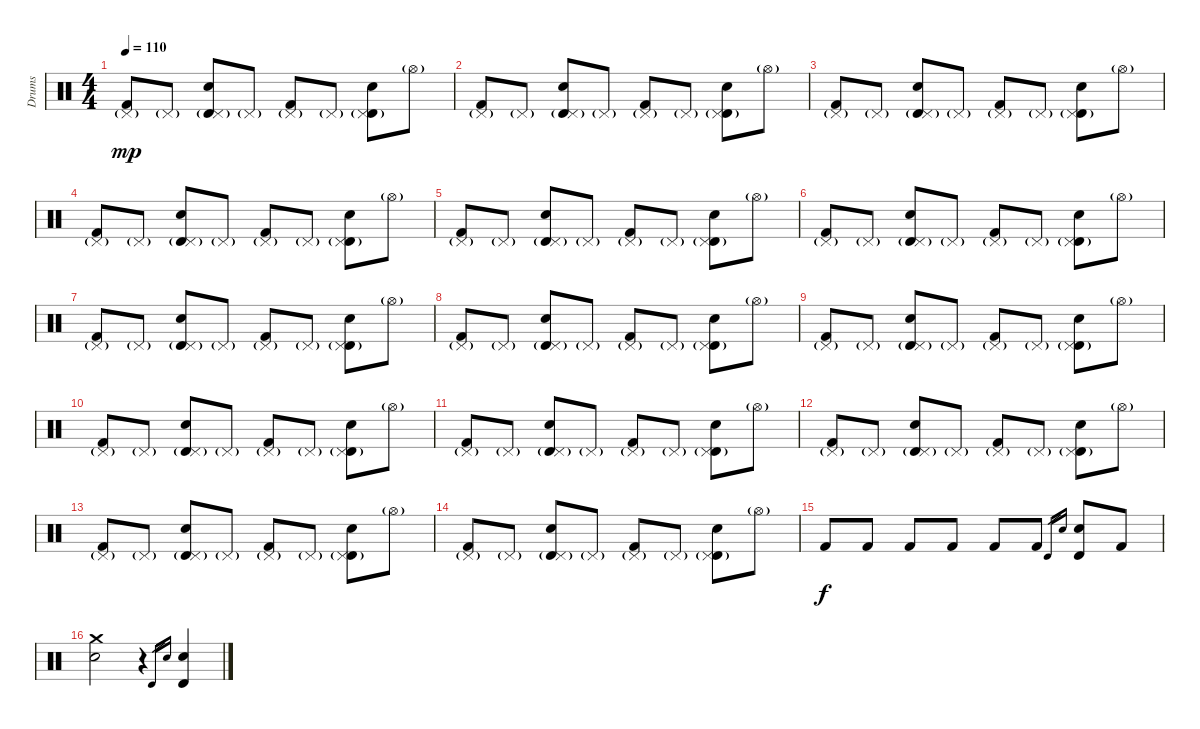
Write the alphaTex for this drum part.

\track ("Drums" "Drums") {instrument percussion}
\staff {score}
\articulation defaults
\ts (4 4)
\tempo 110
\clef neutral
\ks c
("Kick (hit) 2" "Pedal Hi-Hat (hit)"{g}).8{dy mp} "Pedal Hi-Hat (hit)"{g}.8 ("Timbale high (hit)" "Electric Snare (hit)" "Pedal Hi-Hat (hit)"{g}).8 "Pedal Hi-Hat (hit)"{g}.8 ("Kick (hit) 2" "Pedal Hi-Hat (hit)"{g}).8 "Pedal Hi-Hat (hit)"{g}.8 ("Timbale high (hit)" "Electric Snare (hit)" "Pedal Hi-Hat (hit)"{g}).8 "Hi-Hat (open)"{g}.8 |
("Kick (hit) 2" "Pedal Hi-Hat (hit)"{g}).8 "Pedal Hi-Hat (hit)"{g}.8 ("Timbale high (hit)" "Electric Snare (hit)" "Pedal Hi-Hat (hit)"{g}).8 "Pedal Hi-Hat (hit)"{g}.8 ("Kick (hit) 2" "Pedal Hi-Hat (hit)"{g}).8 "Pedal Hi-Hat (hit)"{g}.8 ("Timbale high (hit)" "Electric Snare (hit)" "Pedal Hi-Hat (hit)"{g}).8 "Hi-Hat (open)"{g}.8 |
("Kick (hit) 2" "Pedal Hi-Hat (hit)"{g}).8 "Pedal Hi-Hat (hit)"{g}.8 ("Timbale high (hit)" "Electric Snare (hit)" "Pedal Hi-Hat (hit)"{g}).8 "Pedal Hi-Hat (hit)"{g}.8 ("Kick (hit) 2" "Pedal Hi-Hat (hit)"{g}).8 "Pedal Hi-Hat (hit)"{g}.8 ("Timbale high (hit)" "Electric Snare (hit)" "Pedal Hi-Hat (hit)"{g}).8 "Hi-Hat (open)"{g}.8 |
("Kick (hit) 2" "Pedal Hi-Hat (hit)"{g}).8 "Pedal Hi-Hat (hit)"{g}.8 ("Timbale high (hit)" "Electric Snare (hit)" "Pedal Hi-Hat (hit)"{g}).8 "Pedal Hi-Hat (hit)"{g}.8 ("Kick (hit) 2" "Pedal Hi-Hat (hit)"{g}).8 "Pedal Hi-Hat (hit)"{g}.8 ("Timbale high (hit)" "Electric Snare (hit)" "Pedal Hi-Hat (hit)"{g}).8 "Hi-Hat (open)"{g}.8 |
("Kick (hit) 2" "Pedal Hi-Hat (hit)"{g}).8 "Pedal Hi-Hat (hit)"{g}.8 ("Timbale high (hit)" "Electric Snare (hit)" "Pedal Hi-Hat (hit)"{g}).8 "Pedal Hi-Hat (hit)"{g}.8 ("Kick (hit) 2" "Pedal Hi-Hat (hit)"{g}).8 "Pedal Hi-Hat (hit)"{g}.8 ("Timbale high (hit)" "Electric Snare (hit)" "Pedal Hi-Hat (hit)"{g}).8 "Hi-Hat (open)"{g}.8 |
("Kick (hit) 2" "Pedal Hi-Hat (hit)"{g}).8 "Pedal Hi-Hat (hit)"{g}.8 ("Timbale high (hit)" "Electric Snare (hit)" "Pedal Hi-Hat (hit)"{g}).8 "Pedal Hi-Hat (hit)"{g}.8 ("Kick (hit) 2" "Pedal Hi-Hat (hit)"{g}).8 "Pedal Hi-Hat (hit)"{g}.8 ("Timbale high (hit)" "Electric Snare (hit)" "Pedal Hi-Hat (hit)"{g}).8 "Hi-Hat (open)"{g}.8 |
("Kick (hit) 2" "Pedal Hi-Hat (hit)"{g}).8 "Pedal Hi-Hat (hit)"{g}.8 ("Timbale high (hit)" "Electric Snare (hit)" "Pedal Hi-Hat (hit)"{g}).8 "Pedal Hi-Hat (hit)"{g}.8 ("Kick (hit) 2" "Pedal Hi-Hat (hit)"{g}).8 "Pedal Hi-Hat (hit)"{g}.8 ("Timbale high (hit)" "Electric Snare (hit)" "Pedal Hi-Hat (hit)"{g}).8 "Hi-Hat (open)"{g}.8 |
("Kick (hit) 2" "Pedal Hi-Hat (hit)"{g}).8 "Pedal Hi-Hat (hit)"{g}.8 ("Timbale high (hit)" "Electric Snare (hit)" "Pedal Hi-Hat (hit)"{g}).8 "Pedal Hi-Hat (hit)"{g}.8 ("Kick (hit) 2" "Pedal Hi-Hat (hit)"{g}).8 "Pedal Hi-Hat (hit)"{g}.8 ("Timbale high (hit)" "Electric Snare (hit)" "Pedal Hi-Hat (hit)"{g}).8 "Hi-Hat (open)"{g}.8 |
("Kick (hit) 2" "Pedal Hi-Hat (hit)"{g}).8 "Pedal Hi-Hat (hit)"{g}.8 ("Timbale high (hit)" "Electric Snare (hit)" "Pedal Hi-Hat (hit)"{g}).8 "Pedal Hi-Hat (hit)"{g}.8 ("Kick (hit) 2" "Pedal Hi-Hat (hit)"{g}).8 "Pedal Hi-Hat (hit)"{g}.8 ("Timbale high (hit)" "Electric Snare (hit)" "Pedal Hi-Hat (hit)"{g}).8 "Hi-Hat (open)"{g}.8 |
("Kick (hit) 2" "Pedal Hi-Hat (hit)"{g}).8 "Pedal Hi-Hat (hit)"{g}.8 ("Timbale high (hit)" "Electric Snare (hit)" "Pedal Hi-Hat (hit)"{g}).8 "Pedal Hi-Hat (hit)"{g}.8 ("Kick (hit) 2" "Pedal Hi-Hat (hit)"{g}).8 "Pedal Hi-Hat (hit)"{g}.8 ("Timbale high (hit)" "Electric Snare (hit)" "Pedal Hi-Hat (hit)"{g}).8 "Hi-Hat (open)"{g}.8 |
\section ("" "")
("Kick (hit) 2" "Pedal Hi-Hat (hit)"{g}).8 "Pedal Hi-Hat (hit)"{g}.8 ("Timbale high (hit)" "Electric Snare (hit)" "Pedal Hi-Hat (hit)"{g}).8 "Pedal Hi-Hat (hit)"{g}.8 ("Kick (hit) 2" "Pedal Hi-Hat (hit)"{g}).8 "Pedal Hi-Hat (hit)"{g}.8 ("Timbale high (hit)" "Electric Snare (hit)" "Pedal Hi-Hat (hit)"{g}).8 "Hi-Hat (open)"{g}.8 |
("Kick (hit) 2" "Pedal Hi-Hat (hit)"{g}).8 "Pedal Hi-Hat (hit)"{g}.8 ("Timbale high (hit)" "Electric Snare (hit)" "Pedal Hi-Hat (hit)"{g}).8 "Pedal Hi-Hat (hit)"{g}.8 ("Kick (hit) 2" "Pedal Hi-Hat (hit)"{g}).8 "Pedal Hi-Hat (hit)"{g}.8 ("Timbale high (hit)" "Electric Snare (hit)" "Pedal Hi-Hat (hit)"{g}).8 "Hi-Hat (open)"{g}.8 |
("Kick (hit) 2" "Pedal Hi-Hat (hit)"{g}).8 "Pedal Hi-Hat (hit)"{g}.8 ("Timbale high (hit)" "Electric Snare (hit)" "Pedal Hi-Hat (hit)"{g}).8 "Pedal Hi-Hat (hit)"{g}.8 ("Kick (hit) 2" "Pedal Hi-Hat (hit)"{g}).8 "Pedal Hi-Hat (hit)"{g}.8 ("Timbale high (hit)" "Electric Snare (hit)" "Pedal Hi-Hat (hit)"{g}).8 "Hi-Hat (open)"{g}.8 |
("Kick (hit) 2" "Pedal Hi-Hat (hit)"{g}).8 "Pedal Hi-Hat (hit)"{g}.8 ("Timbale high (hit)" "Electric Snare (hit)" "Pedal Hi-Hat (hit)"{g}).8 "Pedal Hi-Hat (hit)"{g}.8 ("Kick (hit) 2" "Pedal Hi-Hat (hit)"{g}).8 "Pedal Hi-Hat (hit)"{g}.8 ("Timbale high (hit)" "Electric Snare (hit)" "Pedal Hi-Hat (hit)"{g}).8 "Hi-Hat (open)"{g}.8 |
"Kick (hit) 2".8{dy f} "Kick (hit) 2".8 "Kick (hit) 2".8 "Kick (hit) 2".8 "Kick (hit) 2".8 "Kick (hit) 2".8 "Timbale high (hit)".16{gr} "Electric Snare (hit)".16{gr} ("Timbale high (hit)" "Electric Snare (hit)").8 "Kick (hit) 2".8 |
("Electric Snare (hit)" "Crash medium (hit)").2 r.4 "Timbale high (hit)".16{gr} "Electric Snare (hit)".16{gr} ("Timbale high (hit)" "Electric Snare (hit)").4
